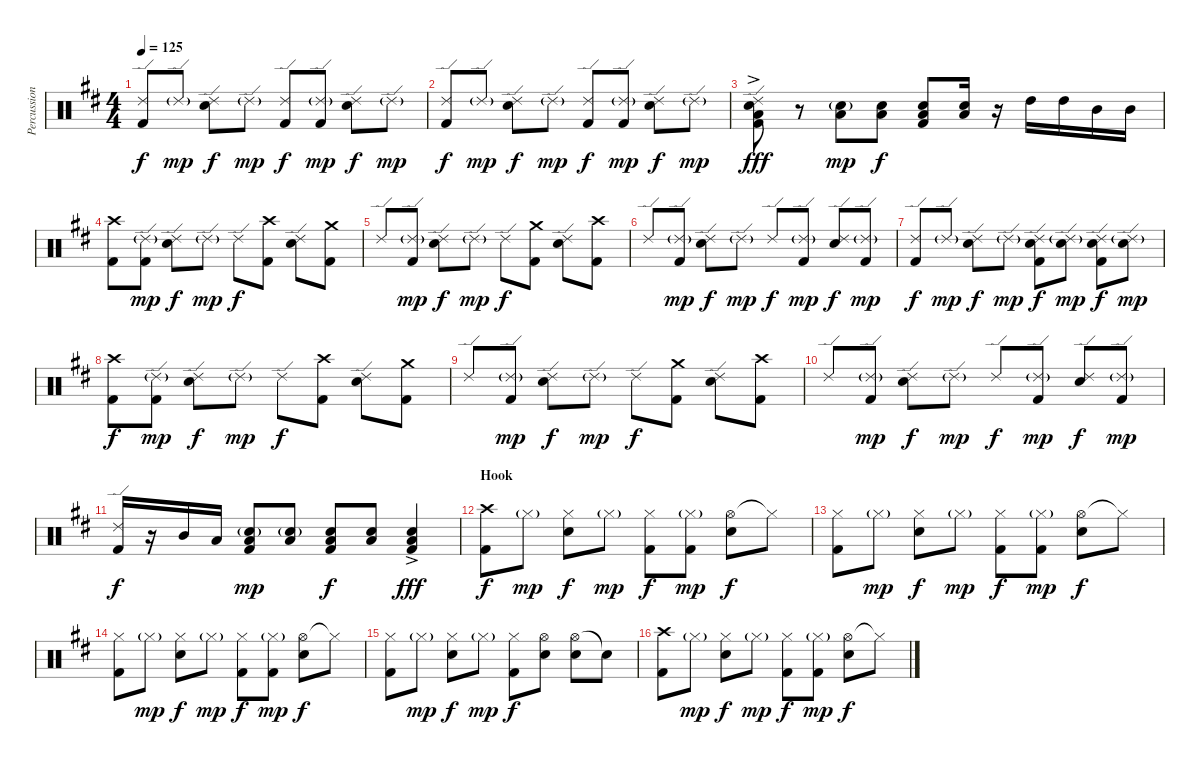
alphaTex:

\track ("Percussion" "Percussion") {instrument percussion}
\staff {score}
\articulation defaults
\ts (4 4)
\tempo 125
\clef neutral
\ks bminor
("Ride (edge) 2" "Kick (hit) 2").8{dy f} "Ride (edge) 2"{g}.8{dy mp} ("Ride (edge) 2" "Snare (hit) 2").8{dy f} "Ride (edge) 2"{g}.8{dy mp} ("Ride (edge) 2" "Kick (hit) 2").8{dy f} ("Ride (edge) 2"{g} "Kick (hit) 2").8{dy mp} ("Ride (edge) 2" "Snare (hit) 2").8{dy f} "Ride (edge) 2"{g}.8{dy mp} |
("Ride (edge) 2" "Kick (hit) 2").8{dy f} "Ride (edge) 2"{g}.8{dy mp} ("Ride (edge) 2" "Snare (hit) 2").8{dy f} "Ride (edge) 2"{g}.8{dy mp} ("Ride (edge) 2" "Kick (hit) 2").8{dy f} ("Ride (edge) 2"{g} "Kick (hit) 2").8{dy mp} ("Ride (edge) 2" "Snare (hit) 2").8{dy f} "Ride (edge) 2"{g}.8{dy mp} |
("Ride (edge) 2" "Low Floor Tom (hit)" "Snare (hit) 2"{ac} "Kick (hit) 2").8{dy fff} r.8 ("Low Floor Tom (hit)" "Electric Snare (hit)"{g}).8{dy mp} ("Low Floor Tom (hit)" "Electric Snare (hit)").8{dy f} ("Low Floor Tom (hit)" "Electric Snare (hit)" "Kick (hit) 2").8 ("Low Floor Tom (hit)" "Snare (hit) 2").16 r.16 "High Tom (hit)".16 "High Tom (hit)".16 "Mid Tom (hit)".16 "Mid Tom (hit)".16 |
("Crash high (hit)" "Kick (hit) 2").8 ("Ride (edge) 2"{g} "Kick (hit) 2").8{dy mp} ("Ride (edge) 2" "Snare (hit) 2").8{dy f} "Ride (edge) 2"{g}.8{dy mp} "Ride (edge) 2".8{dy f} ("Crash high (hit)" "Kick (hit) 2").8 ("Ride (edge) 2" "Snare (hit) 2").8 ("Crash medium (hit)" "Kick (hit) 2").8 |
"Ride (edge) 2".8 ("Ride (edge) 2"{g} "Kick (hit) 2").8{dy mp} ("Ride (edge) 2" "Snare (hit) 2").8{dy f} "Ride (edge) 2"{g}.8{dy mp} "Ride (edge) 2".8{dy f} ("Crash medium (hit)" "Kick (hit) 2").8 ("Ride (edge) 2" "Snare (hit) 2").8 ("Crash high (hit)" "Kick (hit) 2").8 |
"Ride (edge) 2".8 ("Ride (edge) 2"{g} "Kick (hit) 2").8{dy mp} ("Ride (edge) 2" "Snare (hit) 2").8{dy f} "Ride (edge) 2"{g}.8{dy mp} "Ride (edge) 2".8{dy f} ("Ride (edge) 2"{g} "Kick (hit) 2").8{dy mp} ("Ride (edge) 2" "Snare (hit) 2").8{dy f} ("Ride (edge) 2"{g} "Kick (hit) 2").8{dy mp} |
("Ride (edge) 2" "Kick (hit) 2").8{dy f} "Ride (edge) 2"{g}.8{dy mp} ("Ride (edge) 2" "Snare (hit) 2").8{dy f} "Ride (edge) 2"{g}.8{dy mp} ("Ride (edge) 2" "Snare (hit) 2" "Kick (hit) 2").8{dy f} ("Ride (edge) 2"{g} "Snare (hit) 2").8{dy mp} ("Ride (edge) 2" "Snare (hit) 2" "Kick (hit) 2").8{dy f} ("Ride (edge) 2"{g} "Snare (hit) 2").8{dy mp} |
("Crash high (hit)" "Kick (hit) 2").8{dy f} ("Ride (edge) 2"{g} "Kick (hit) 2").8{dy mp} ("Ride (edge) 2" "Snare (hit) 2").8{dy f} "Ride (edge) 2"{g}.8{dy mp} "Ride (edge) 2".8{dy f} ("Crash high (hit)" "Kick (hit) 2").8 ("Ride (edge) 2" "Snare (hit) 2").8 ("Crash medium (hit)" "Kick (hit) 2").8 |
"Ride (edge) 2".8 ("Ride (edge) 2"{g} "Kick (hit) 2").8{dy mp} ("Ride (edge) 2" "Snare (hit) 2").8{dy f} "Ride (edge) 2"{g}.8{dy mp} "Ride (edge) 2".8{dy f} ("Crash medium (hit)" "Kick (hit) 2").8 ("Ride (edge) 2" "Snare (hit) 2").8 ("Crash high (hit)" "Kick (hit) 2").8 |
"Ride (edge) 2".8 ("Ride (edge) 2"{g} "Kick (hit) 2").8{dy mp} ("Ride (edge) 2" "Snare (hit) 2").8{dy f} "Ride (edge) 2"{g}.8{dy mp} "Ride (edge) 2".8{dy f} ("Ride (edge) 2"{g} "Kick (hit) 2").8{dy mp} ("Ride (edge) 2" "Snare (hit) 2").8{dy f} ("Ride (edge) 2"{g} "Kick (hit) 2").8{dy mp} |
("Ride (edge) 2" "Kick (hit) 2").16{dy f} r.16 "Mid Tom (hit)".16 "Low Tom (hit)".16 ("Low Floor Tom (hit)" "Electric Snare (hit)"{g} "Kick (hit) 2").8{dy mp} ("Low Floor Tom (hit)" "Electric Snare (hit)"{g}).8 ("Low Floor Tom (hit)" "Electric Snare (hit)" "Kick (hit) 2").8{dy f} ("Low Floor Tom (hit)" "Snare (hit) 2").8 ("Low Floor Tom (hit)" "Snare (hit) 2"{ac} "Kick (hit) 2").4{dy fff} |
\section ("" "Hook")
("Crash high (hit)" "Kick (hit) 2").8{dy f} "Hi-Hat (closed)"{g}.8{dy mp} ("Hi-Hat (closed)" "Snare (hit) 2").8{dy f} "Hi-Hat (closed)"{g}.8{dy mp} ("Hi-Hat (closed)" "Kick (hit) 2").8{dy f} ("Hi-Hat (closed)"{g} "Kick (hit) 2").8{dy mp} ("Hi-Hat (open)" "Snare (hit) 2").8{dy f} "Hi-Hat (closed)"{t}.8 |
("Hi-Hat (closed)" "Kick (hit) 2").8 "Hi-Hat (closed)"{g}.8{dy mp} ("Hi-Hat (closed)" "Snare (hit) 2").8{dy f} "Hi-Hat (closed)"{g}.8{dy mp} ("Hi-Hat (closed)" "Kick (hit) 2").8{dy f} ("Hi-Hat (closed)"{g} "Kick (hit) 2").8{dy mp} ("Hi-Hat (open)" "Snare (hit) 2").8{dy f} "Hi-Hat (closed)"{t}.8 |
("Hi-Hat (closed)" "Kick (hit) 2").8 "Hi-Hat (closed)"{g}.8{dy mp} ("Hi-Hat (closed)" "Snare (hit) 2").8{dy f} "Hi-Hat (closed)"{g}.8{dy mp} ("Hi-Hat (closed)" "Kick (hit) 2").8{dy f} ("Hi-Hat (closed)"{g} "Kick (hit) 2").8{dy mp} ("Hi-Hat (open)" "Snare (hit) 2").8{dy f} "Hi-Hat (closed)"{t}.8 |
("Hi-Hat (closed)" "Kick (hit) 2").8 "Hi-Hat (closed)"{g}.8{dy mp} ("Hi-Hat (closed)" "Snare (hit) 2").8{dy f} "Hi-Hat (closed)"{g}.8{dy mp} ("Hi-Hat (closed)" "Kick (hit) 2").8{dy f} ("Hi-Hat (open)" "Snare (hit) 2").8 ("Hi-Hat (open)" "Snare (hit) 2").8 "Snare (hit)"{t}.8 |
("Crash high (hit)" "Kick (hit) 2").8 "Hi-Hat (closed)"{g}.8{dy mp} ("Hi-Hat (closed)" "Snare (hit) 2").8{dy f} "Hi-Hat (closed)"{g}.8{dy mp} ("Hi-Hat (closed)" "Kick (hit) 2").8{dy f} ("Hi-Hat (closed)"{g} "Kick (hit) 2").8{dy mp} ("Hi-Hat (open)" "Snare (hit) 2").8{dy f} "Hi-Hat (closed)"{t}.8
